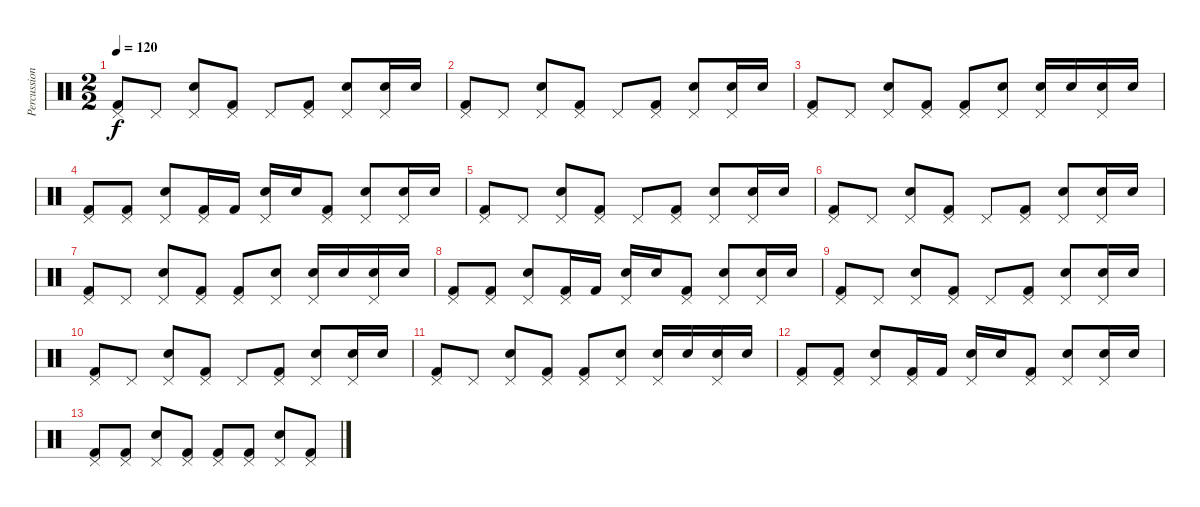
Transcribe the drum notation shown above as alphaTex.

\track ("Percussion" "Percussion") {instrument percussion}
\staff {score}
\articulation defaults
\ts (2 2)
\tempo 120
\clef neutral
\ks c
("Kick (hit) 2" "Pedal Hi-Hat (hit)").8{dy f} "Pedal Hi-Hat (hit)".8 ("Electric Snare (hit)" "Pedal Hi-Hat (hit)").8 ("Kick (hit) 2" "Pedal Hi-Hat (hit)").8 "Pedal Hi-Hat (hit)".8 ("Kick (hit) 2" "Pedal Hi-Hat (hit)").8 ("Electric Snare (hit)" "Pedal Hi-Hat (hit)").8 ("Electric Snare (hit)" "Pedal Hi-Hat (hit)").16 "Electric Snare (hit)".16 |
("Kick (hit) 2" "Pedal Hi-Hat (hit)").8 "Pedal Hi-Hat (hit)".8 ("Electric Snare (hit)" "Pedal Hi-Hat (hit)").8 ("Kick (hit) 2" "Pedal Hi-Hat (hit)").8 "Pedal Hi-Hat (hit)".8 ("Kick (hit) 2" "Pedal Hi-Hat (hit)").8 ("Electric Snare (hit)" "Pedal Hi-Hat (hit)").8 ("Electric Snare (hit)" "Pedal Hi-Hat (hit)").16 "Electric Snare (hit)".16 |
("Kick (hit) 2" "Pedal Hi-Hat (hit)").8 "Pedal Hi-Hat (hit)".8 ("Electric Snare (hit)" "Pedal Hi-Hat (hit)").8 ("Kick (hit) 2" "Pedal Hi-Hat (hit)").8 ("Kick (hit) 2" "Pedal Hi-Hat (hit)").8 ("Electric Snare (hit)" "Pedal Hi-Hat (hit)").8 ("Electric Snare (hit)" "Pedal Hi-Hat (hit)").16 "Electric Snare (hit)".16 ("Electric Snare (hit)" "Pedal Hi-Hat (hit)").16 "Electric Snare (hit)".16 |
("Kick (hit) 2" "Pedal Hi-Hat (hit)").8 ("Kick (hit) 2" "Pedal Hi-Hat (hit)").8 ("Electric Snare (hit)" "Pedal Hi-Hat (hit)").8 ("Kick (hit) 2" "Pedal Hi-Hat (hit)").16 "Kick (hit) 2".16 ("Electric Snare (hit)" "Pedal Hi-Hat (hit)").16 "Electric Snare (hit)".16 ("Kick (hit) 2" "Pedal Hi-Hat (hit)").8 ("Electric Snare (hit)" "Pedal Hi-Hat (hit)").8 ("Electric Snare (hit)" "Pedal Hi-Hat (hit)").16 "Electric Snare (hit)".16 |
("Kick (hit) 2" "Pedal Hi-Hat (hit)").8 "Pedal Hi-Hat (hit)".8 ("Electric Snare (hit)" "Pedal Hi-Hat (hit)").8 ("Kick (hit) 2" "Pedal Hi-Hat (hit)").8 "Pedal Hi-Hat (hit)".8 ("Kick (hit) 2" "Pedal Hi-Hat (hit)").8 ("Electric Snare (hit)" "Pedal Hi-Hat (hit)").8 ("Electric Snare (hit)" "Pedal Hi-Hat (hit)").16 "Electric Snare (hit)".16 |
("Kick (hit) 2" "Pedal Hi-Hat (hit)").8 "Pedal Hi-Hat (hit)".8 ("Electric Snare (hit)" "Pedal Hi-Hat (hit)").8 ("Kick (hit) 2" "Pedal Hi-Hat (hit)").8 "Pedal Hi-Hat (hit)".8 ("Kick (hit) 2" "Pedal Hi-Hat (hit)").8 ("Electric Snare (hit)" "Pedal Hi-Hat (hit)").8 ("Electric Snare (hit)" "Pedal Hi-Hat (hit)").16 "Electric Snare (hit)".16 |
("Kick (hit) 2" "Pedal Hi-Hat (hit)").8 "Pedal Hi-Hat (hit)".8 ("Electric Snare (hit)" "Pedal Hi-Hat (hit)").8 ("Kick (hit) 2" "Pedal Hi-Hat (hit)").8 ("Kick (hit) 2" "Pedal Hi-Hat (hit)").8 ("Electric Snare (hit)" "Pedal Hi-Hat (hit)").8 ("Electric Snare (hit)" "Pedal Hi-Hat (hit)").16 "Electric Snare (hit)".16 ("Electric Snare (hit)" "Pedal Hi-Hat (hit)").16 "Electric Snare (hit)".16 |
("Kick (hit) 2" "Pedal Hi-Hat (hit)").8 ("Kick (hit) 2" "Pedal Hi-Hat (hit)").8 ("Electric Snare (hit)" "Pedal Hi-Hat (hit)").8 ("Kick (hit) 2" "Pedal Hi-Hat (hit)").16 "Kick (hit) 2".16 ("Electric Snare (hit)" "Pedal Hi-Hat (hit)").16 "Electric Snare (hit)".16 ("Kick (hit) 2" "Pedal Hi-Hat (hit)").8 ("Electric Snare (hit)" "Pedal Hi-Hat (hit)").8 ("Electric Snare (hit)" "Pedal Hi-Hat (hit)").16 "Electric Snare (hit)".16 |
("Kick (hit) 2" "Pedal Hi-Hat (hit)").8 "Pedal Hi-Hat (hit)".8 ("Electric Snare (hit)" "Pedal Hi-Hat (hit)").8 ("Kick (hit) 2" "Pedal Hi-Hat (hit)").8 "Pedal Hi-Hat (hit)".8 ("Kick (hit) 2" "Pedal Hi-Hat (hit)").8 ("Electric Snare (hit)" "Pedal Hi-Hat (hit)").8 ("Electric Snare (hit)" "Pedal Hi-Hat (hit)").16 "Electric Snare (hit)".16 |
("Kick (hit) 2" "Pedal Hi-Hat (hit)").8 "Pedal Hi-Hat (hit)".8 ("Electric Snare (hit)" "Pedal Hi-Hat (hit)").8 ("Kick (hit) 2" "Pedal Hi-Hat (hit)").8 "Pedal Hi-Hat (hit)".8 ("Kick (hit) 2" "Pedal Hi-Hat (hit)").8 ("Electric Snare (hit)" "Pedal Hi-Hat (hit)").8 ("Electric Snare (hit)" "Pedal Hi-Hat (hit)").16 "Electric Snare (hit)".16 |
("Kick (hit) 2" "Pedal Hi-Hat (hit)").8 "Pedal Hi-Hat (hit)".8 ("Electric Snare (hit)" "Pedal Hi-Hat (hit)").8 ("Kick (hit) 2" "Pedal Hi-Hat (hit)").8 ("Kick (hit) 2" "Pedal Hi-Hat (hit)").8 ("Electric Snare (hit)" "Pedal Hi-Hat (hit)").8 ("Electric Snare (hit)" "Pedal Hi-Hat (hit)").16 "Electric Snare (hit)".16 ("Electric Snare (hit)" "Pedal Hi-Hat (hit)").16 "Electric Snare (hit)".16 |
("Kick (hit) 2" "Pedal Hi-Hat (hit)").8 ("Kick (hit) 2" "Pedal Hi-Hat (hit)").8 ("Electric Snare (hit)" "Pedal Hi-Hat (hit)").8 ("Kick (hit) 2" "Pedal Hi-Hat (hit)").16 "Kick (hit) 2".16 ("Electric Snare (hit)" "Pedal Hi-Hat (hit)").16 "Electric Snare (hit)".16 ("Kick (hit) 2" "Pedal Hi-Hat (hit)").8 ("Electric Snare (hit)" "Pedal Hi-Hat (hit)").8 ("Electric Snare (hit)" "Pedal Hi-Hat (hit)").16 "Electric Snare (hit)".16 |
("Kick (hit) 2" "Pedal Hi-Hat (hit)").8 ("Kick (hit) 2" "Pedal Hi-Hat (hit)").8 ("Electric Snare (hit)" "Pedal Hi-Hat (hit)").8 ("Kick (hit) 2" "Pedal Hi-Hat (hit)").8 ("Kick (hit) 2" "Pedal Hi-Hat (hit)").8 ("Kick (hit) 2" "Pedal Hi-Hat (hit)").8 ("Electric Snare (hit)" "Pedal Hi-Hat (hit)").8 ("Kick (hit) 2" "Pedal Hi-Hat (hit)").8
